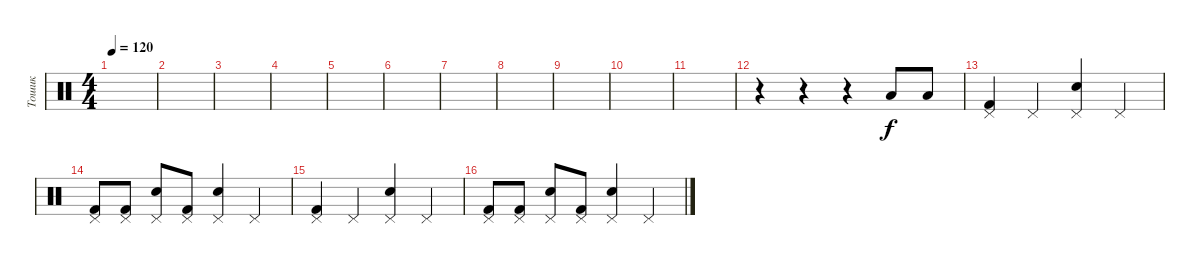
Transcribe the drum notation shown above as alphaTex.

\track ("Тошик" "Тошик") {instrument percussion}
\staff {score}
\articulation defaults
\ts (4 4)
\tempo 120
\clef neutral
\ks c
|
|
|
|
|
|
|
|
|
|
|
r.4 r.4 r.4 "Low Floor Tom (hit)".8 "Low Floor Tom (hit)".8 |
("Kick (hit) 2" "Pedal Hi-Hat (hit)").4 "Pedal Hi-Hat (hit)".4 ("Electric Snare (hit)" "Pedal Hi-Hat (hit)").4 "Pedal Hi-Hat (hit)".4 |
("Kick (hit) 2" "Pedal Hi-Hat (hit)").8 ("Kick (hit) 2" "Pedal Hi-Hat (hit)").8 ("Snare (hit) 2" "Pedal Hi-Hat (hit)").8 ("Kick (hit) 2" "Pedal Hi-Hat (hit)").8 ("Electric Snare (hit)" "Pedal Hi-Hat (hit)").4 "Pedal Hi-Hat (hit)".4 |
("Kick (hit) 2" "Pedal Hi-Hat (hit)").4 "Pedal Hi-Hat (hit)".4 ("Electric Snare (hit)" "Pedal Hi-Hat (hit)").4 "Pedal Hi-Hat (hit)".4 |
("Kick (hit) 2" "Pedal Hi-Hat (hit)").8 ("Kick (hit) 2" "Pedal Hi-Hat (hit)").8 ("Snare (hit) 2" "Pedal Hi-Hat (hit)").8 ("Kick (hit) 2" "Pedal Hi-Hat (hit)").8 ("Electric Snare (hit)" "Pedal Hi-Hat (hit)").4 "Pedal Hi-Hat (hit)".4
